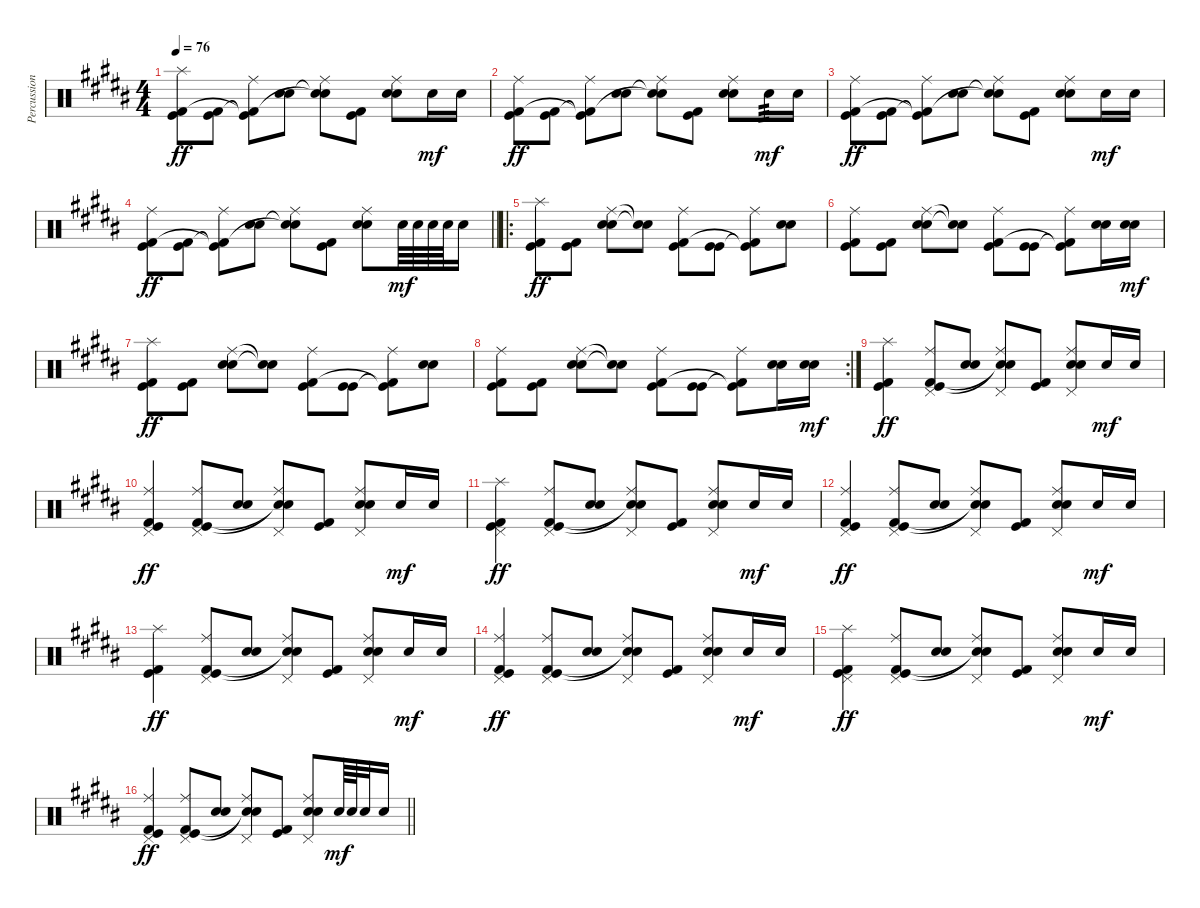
\track ("Percussion" "Percussion") {instrument percussion}
\staff {score}
\articulation defaults
\ts (4 4)
\tempo 76
\clef neutral
\ks b
("Splash (hit)" "Kick (hit)" "Kick (hit) 2").8{dy ff} ("Kick (hit)" "Kick (hit) 2").8 ("Ride (middle)" "Kick (hit)"{t} "Kick (hit) 2"{t}).8 ("Snare (hit) 2" "Snare (hit) 2").8 ("Ride (middle)" "Snare (hit) 2"{t} "Snare (hit) 2"{t}).8 ("Kick (hit)" "Kick (hit) 2").8 ("Ride (middle)" "Snare (hit) 2" "Snare (hit) 2").8 "Snare (hit) 2".16{dy mf} "Snare (hit) 2".16 |
("Ride (middle)" "Kick (hit)" "Kick (hit) 2").8{dy ff} ("Kick (hit)" "Kick (hit) 2").8 ("Ride (middle)" "Kick (hit)"{t} "Kick (hit) 2"{t}).8 ("Snare (hit) 2" "Snare (hit) 2").8 ("Ride (middle)" "Snare (hit) 2"{t} "Snare (hit) 2"{t}).8 ("Kick (hit)" "Kick (hit) 2").8 ("Ride (middle)" "Snare (hit) 2" "Snare (hit) 2").8 "Snare (hit) 2".16{tp 3 dy mf} "Snare (hit) 2".16 |
("Ride (middle)" "Kick (hit)" "Kick (hit) 2").8{dy ff} ("Kick (hit)" "Kick (hit) 2").8 ("Ride (middle)" "Kick (hit)"{t} "Kick (hit) 2"{t}).8 ("Snare (hit) 2" "Snare (hit) 2").8 ("Ride (middle)" "Snare (hit) 2"{t} "Snare (hit) 2"{t}).8 ("Kick (hit)" "Kick (hit) 2").8 ("Ride (middle)" "Snare (hit) 2" "Snare (hit) 2").8 "Snare (hit) 2".16{dy mf} "Snare (hit) 2".16 |
\barLineRight lightlight
("Ride (middle)" "Kick (hit)" "Kick (hit) 2").8{dy ff} ("Kick (hit)" "Kick (hit) 2").8 ("Ride (middle)" "Kick (hit)"{t} "Kick (hit) 2"{t}).8 ("Snare (hit) 2" "Snare (hit) 2").8 ("Ride (middle)" "Snare (hit) 2"{t} "Snare (hit) 2"{t}).8 ("Kick (hit)" "Kick (hit) 2").8 ("Ride (middle)" "Snare (hit) 2" "Snare (hit) 2").8 "Snare (hit) 2".64{dy mf} "Snare (hit) 2".64 "Snare (hit) 2".64 "Snare (hit) 2".64 "Snare (hit) 2".16 |
\ro
("Splash (hit)" "Kick (hit)" "Kick (hit) 2").8{dy ff} ("Kick (hit)" "Kick (hit) 2").8 ("Ride (middle)" "Snare (hit) 2" "Snare (hit) 2").8 ("Snare (hit) 2"{t} "Snare (hit) 2"{t}).8 ("Ride (middle)" "Kick (hit)" "Kick (hit) 2").8 ("Kick (hit)" "Kick (hit)").8 ("Ride (middle)" "Kick (hit)"{t} "Kick (hit) 2"{t}).8 ("Snare (hit) 2" "Snare (hit) 2").8 |
("Ride (middle)" "Kick (hit)" "Kick (hit) 2").8 ("Kick (hit)" "Kick (hit) 2").8 ("Ride (middle)" "Snare (hit) 2" "Snare (hit) 2").8 ("Snare (hit) 2"{t} "Snare (hit) 2"{t}).8 ("Ride (middle)" "Kick (hit)" "Kick (hit) 2").8 ("Kick (hit)" "Kick (hit)").8 ("Ride (middle)" "Kick (hit)"{t} "Kick (hit) 2"{t}).8 ("Snare (hit) 2" "Snare (hit) 2").16 ("Snare (hit) 2" "Snare (hit) 2").16{dy mf} |
("Splash (hit)" "Kick (hit)" "Kick (hit) 2").8{dy ff} ("Kick (hit)" "Kick (hit) 2").8 ("Ride (middle)" "Snare (hit) 2" "Snare (hit) 2").8 ("Snare (hit) 2"{t} "Snare (hit) 2"{t}).8 ("Ride (middle)" "Kick (hit)" "Kick (hit) 2").8 ("Kick (hit)" "Kick (hit)").8 ("Ride (middle)" "Kick (hit)"{t} "Kick (hit) 2"{t}).8 ("Snare (hit) 2" "Snare (hit) 2").8 |
\rc 2
("Ride (middle)" "Kick (hit)" "Kick (hit) 2").8 ("Kick (hit)" "Kick (hit) 2").8 ("Ride (middle)" "Snare (hit) 2" "Snare (hit) 2").8 ("Snare (hit) 2"{t} "Snare (hit) 2"{t}).8 ("Ride (middle)" "Kick (hit)" "Kick (hit) 2").8 ("Kick (hit)" "Kick (hit)").8 ("Ride (middle)" "Kick (hit)"{t} "Kick (hit) 2"{t}).8 ("Snare (hit) 2" "Snare (hit) 2").16 ("Snare (hit) 2" "Snare (hit) 2").16{dy mf} |
("Splash (hit)" "Kick (hit)" "Kick (hit) 2").4{dy ff} ("Ride (middle)" "Pedal Hi-Hat (hit)" "Kick (hit)" "Kick (hit) 2").8 ("Snare (hit) 2" "Snare (hit) 2").8 ("Ride (middle)" "Pedal Hi-Hat (hit)" "Snare (hit) 2"{t} "Snare (hit) 2"{t}).8 ("Kick (hit)" "Kick (hit) 2").8 ("Ride (middle)" "Pedal Hi-Hat (hit)" "Snare (hit) 2" "Snare (hit) 2").8 "Snare (hit) 2".16{dy mf} "Snare (hit) 2".16 |
("Ride (middle)" "Pedal Hi-Hat (hit)" "Kick (hit)" "Kick (hit) 2").4{dy ff} ("Ride (middle)" "Pedal Hi-Hat (hit)" "Kick (hit)" "Kick (hit) 2").8 ("Snare (hit) 2" "Snare (hit) 2").8 ("Ride (middle)" "Pedal Hi-Hat (hit)" "Snare (hit) 2"{t} "Snare (hit) 2"{t}).8 ("Kick (hit)" "Kick (hit) 2").8 ("Ride (middle)" "Pedal Hi-Hat (hit)" "Snare (hit) 2" "Snare (hit) 2").8 "Snare (hit) 2".16{dy mf} "Snare (hit) 2".16 |
("Splash (hit)" "Pedal Hi-Hat (hit)" "Kick (hit)" "Kick (hit) 2").4{dy ff} ("Ride (middle)" "Pedal Hi-Hat (hit)" "Kick (hit)" "Kick (hit) 2").8 ("Snare (hit) 2" "Snare (hit) 2").8 ("Ride (middle)" "Pedal Hi-Hat (hit)" "Snare (hit) 2"{t} "Snare (hit) 2"{t}).8 ("Kick (hit)" "Kick (hit) 2").8 ("Ride (middle)" "Pedal Hi-Hat (hit)" "Snare (hit) 2" "Snare (hit) 2").8 "Snare (hit) 2".16{dy mf} "Snare (hit) 2".16 |
("Ride (middle)" "Pedal Hi-Hat (hit)" "Kick (hit)" "Kick (hit) 2").4{dy ff} ("Ride (middle)" "Pedal Hi-Hat (hit)" "Kick (hit)" "Kick (hit) 2").8 ("Snare (hit) 2" "Snare (hit) 2").8 ("Ride (middle)" "Pedal Hi-Hat (hit)" "Snare (hit) 2"{t} "Snare (hit) 2"{t}).8 ("Kick (hit)" "Kick (hit) 2").8 ("Ride (middle)" "Pedal Hi-Hat (hit)" "Snare (hit) 2" "Snare (hit) 2").8 "Snare (hit) 2".16{dy mf} "Snare (hit) 2".16 |
("Splash (hit)" "Kick (hit)" "Kick (hit) 2").4{dy ff} ("Ride (middle)" "Pedal Hi-Hat (hit)" "Kick (hit)" "Kick (hit) 2").8 ("Snare (hit) 2" "Snare (hit) 2").8 ("Ride (middle)" "Pedal Hi-Hat (hit)" "Snare (hit) 2"{t} "Snare (hit) 2"{t}).8 ("Kick (hit)" "Kick (hit) 2").8 ("Ride (middle)" "Pedal Hi-Hat (hit)" "Snare (hit) 2" "Snare (hit) 2").8 "Snare (hit) 2".16{dy mf} "Snare (hit) 2".16 |
("Ride (middle)" "Pedal Hi-Hat (hit)" "Kick (hit)" "Kick (hit) 2").4{dy ff} ("Ride (middle)" "Pedal Hi-Hat (hit)" "Kick (hit)" "Kick (hit) 2").8 ("Snare (hit) 2" "Snare (hit) 2").8 ("Ride (middle)" "Pedal Hi-Hat (hit)" "Snare (hit) 2"{t} "Snare (hit) 2"{t}).8 ("Kick (hit)" "Kick (hit) 2").8 ("Ride (middle)" "Pedal Hi-Hat (hit)" "Snare (hit) 2" "Snare (hit) 2").8 "Snare (hit) 2".16{dy mf} "Snare (hit) 2".16 |
("Splash (hit)" "Pedal Hi-Hat (hit)" "Kick (hit)" "Kick (hit) 2").4{dy ff} ("Ride (middle)" "Pedal Hi-Hat (hit)" "Kick (hit)" "Kick (hit) 2").8 ("Snare (hit) 2" "Snare (hit) 2").8 ("Ride (middle)" "Pedal Hi-Hat (hit)" "Snare (hit) 2"{t} "Snare (hit) 2"{t}).8 ("Kick (hit)" "Kick (hit) 2").8 ("Ride (middle)" "Pedal Hi-Hat (hit)" "Snare (hit) 2" "Snare (hit) 2").8 "Snare (hit) 2".16{dy mf} "Snare (hit) 2".16 |
\barLineRight lightlight
("Ride (middle)" "Pedal Hi-Hat (hit)" "Kick (hit)" "Kick (hit) 2").4{dy ff} ("Ride (middle)" "Pedal Hi-Hat (hit)" "Kick (hit)" "Kick (hit) 2").8 ("Snare (hit) 2" "Snare (hit) 2").8 ("Ride (middle)" "Pedal Hi-Hat (hit)" "Snare (hit) 2"{t} "Snare (hit) 2"{t}).8 ("Kick (hit)" "Kick (hit) 2").8 ("Ride (middle)" "Pedal Hi-Hat (hit)" "Snare (hit) 2" "Snare (hit) 2").8 "Snare (hit) 2".64{dy mf} "Snare (hit) 2".64 "Snare (hit) 2".32 "Snare (hit) 2".16
